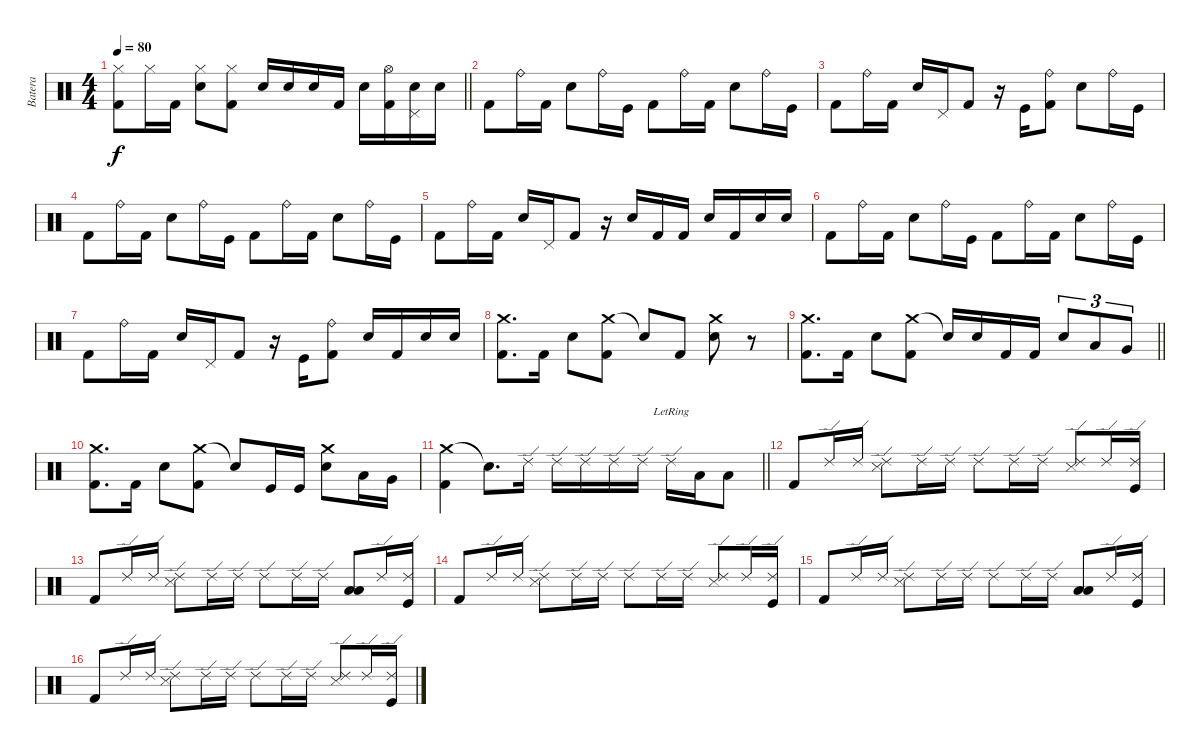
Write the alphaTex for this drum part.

\track ("Batera" "Batera") {instrument percussion}
\staff {score}
\articulation defaults
\ts (4 4)
\tempo 80
\clef neutral
\barLineRight lightlight
\ks c
("Hi-Hat (closed)" "Kick (hit) 2").8{dy f} "Hi-Hat (closed)".16 "Kick (hit) 2".16 ("Hi-Hat (closed)" "Electric Snare (hit)").8 ("Hi-Hat (closed)" "Kick (hit) 2").8 "Electric Snare (hit)".16 "Electric Snare (hit)".16 "Electric Snare (hit)".16 "Kick (hit) 2".16 "Electric Snare (hit)".16 ("Hi-Hat (open)" "Kick (hit) 2").16 ("Pedal Hi-Hat (hit)" "Electric Snare (hit)").16 "Electric Snare (hit)".16 |
"Kick (hit) 2".8 "Ride (bell)".16 "Kick (hit) 2".16 "Electric Snare (hit)".8 "Ride (bell)".16 "Kick (hit)".16 "Kick (hit) 2".8 "Ride (bell)".16 "Kick (hit) 2".16 "Electric Snare (hit)".8 "Ride (bell)".16 "Kick (hit)".16 |
"Kick (hit) 2".8 "Ride (bell)".16 "Kick (hit) 2".16 "Electric Snare (hit)".16 "Pedal Hi-Hat (hit)".16 "Kick (hit) 2".8 r.16 "Kick (hit)".16 ("Ride (bell)" "Kick (hit) 2").8 "Electric Snare (hit)".8 "Ride (bell)".16 "Kick (hit)".16 |
"Kick (hit) 2".8 "Ride (bell)".16 "Kick (hit) 2".16 "Electric Snare (hit)".8 "Ride (bell)".16 "Kick (hit)".16 "Kick (hit) 2".8 "Ride (bell)".16 "Kick (hit) 2".16 "Electric Snare (hit)".8 "Ride (bell)".16 "Kick (hit)".16 |
"Kick (hit) 2".8 "Ride (bell)".16 "Kick (hit) 2".16 "Electric Snare (hit)".16 "Pedal Hi-Hat (hit)".16 "Kick (hit) 2".8 r.16 "Electric Snare (hit)".16 "Kick (hit) 2".16 "Kick (hit) 2".16 "Electric Snare (hit)".16 "Kick (hit) 2".16 "Electric Snare (hit)".16 "Electric Snare (hit)".16 |
"Kick (hit) 2".8 "Ride (bell)".16 "Kick (hit) 2".16 "Electric Snare (hit)".8 "Ride (bell)".16 "Kick (hit)".16 "Kick (hit) 2".8 "Ride (bell)".16 "Kick (hit) 2".16 "Electric Snare (hit)".8 "Ride (bell)".16 "Kick (hit)".16 |
"Kick (hit) 2".8 "Ride (bell)".16 "Kick (hit) 2".16 "Electric Snare (hit)".16 "Pedal Hi-Hat (hit)".16 "Kick (hit) 2".8 r.16 "Kick (hit)".16 ("Ride (bell)" "Kick (hit) 2").8 "Electric Snare (hit)".16 "Kick (hit) 2".16 "Electric Snare (hit)".16 "Electric Snare (hit)".16 |
("Crash medium (hit)" "Kick (hit) 2").8{d} "Kick (hit) 2".16 "Electric Snare (hit)".8 ("Crash medium (hit)" "Kick (hit) 2").8 "Snare (hit)"{t}.8 "Kick (hit) 2".8 ("Crash medium (hit)" "Electric Snare (hit)").8 r.8 |
\barLineRight lightlight
("Crash medium (hit)" "Kick (hit) 2").8{d} "Kick (hit) 2".16 "Electric Snare (hit)".8 ("Crash medium (hit)" "Kick (hit) 2").8 "Snare (hit)"{t}.16 "Electric Snare (hit)".16 "Kick (hit) 2".16 "Kick (hit) 2".16 "Electric Snare (hit)".8{tu (3 2)} "Low Tom (hit)".8{tu (3 2)} "Very Low Tom (hit)".8{tu (3 2)} |
("Crash medium (hit)" "Kick (hit) 2").8{d} "Kick (hit) 2".16 "Electric Snare (hit)".8 ("Crash medium (hit)" "Kick (hit) 2").8 "Snare (hit)"{t}.8 "Kick (hit)".16 "Kick (hit)".16 ("Crash medium (hit)" "Electric Snare (hit)").8 "Low Tom (hit)".16 "Very Low Tom (hit)".16 |
\barLineRight lightlight
("Crash medium (hit)" "Kick (hit) 2").4 "Snare (hit)"{t}.8{d} "Ride (edge) 2".16 "Ride (edge) 2".16 "Ride (edge) 2".16 "Ride (edge) 2".16 "Ride (edge) 2".16 "Ride (edge) 2"{lr}.16 "Low Tom (hit)".16 "Low Floor Tom (hit)".8 |
"Kick (hit) 2".8 "Ride (edge) 2".16 "Ride (edge) 2".16 ("Ride (edge) 2" "Snare (side stick) 3").8 "Ride (edge) 2".16 "Ride (edge) 2".16 "Ride (edge) 2".8 "Ride (edge) 2".16 "Ride (edge) 2".16 ("Ride (edge) 2" "Snare (side stick) 3").8 "Ride (edge) 2".16 ("Ride (edge) 2" "Kick (hit)").16 |
"Kick (hit) 2".8 "Ride (edge) 2".16 "Ride (edge) 2".16 ("Ride (edge) 2" "Snare (side stick) 3").8 "Ride (edge) 2".16 "Ride (edge) 2".16 "Ride (edge) 2".8 "Ride (edge) 2".16 "Ride (edge) 2".16 ("Low Tom (hit)" "Low Floor Tom (hit)").8 "Ride (edge) 2".16 ("Ride (edge) 2" "Kick (hit)").16 |
"Kick (hit) 2".8 "Ride (edge) 2".16 "Ride (edge) 2".16 ("Ride (edge) 2" "Snare (side stick) 3").8 "Ride (edge) 2".16 "Ride (edge) 2".16 "Ride (edge) 2".8 "Ride (edge) 2".16 "Ride (edge) 2".16 ("Ride (edge) 2" "Snare (side stick) 3").8 "Ride (edge) 2".16 ("Ride (edge) 2" "Kick (hit)").16 |
"Kick (hit) 2".8 "Ride (edge) 2".16 "Ride (edge) 2".16 ("Ride (edge) 2" "Snare (side stick) 3").8 "Ride (edge) 2".16 "Ride (edge) 2".16 "Ride (edge) 2".8 "Ride (edge) 2".16 "Ride (edge) 2".16 ("Low Tom (hit)" "Low Floor Tom (hit)").8 "Ride (edge) 2".16 ("Ride (edge) 2" "Kick (hit)").16 |
"Kick (hit) 2".8 "Ride (edge) 2".16 "Ride (edge) 2".16 ("Ride (edge) 2" "Snare (side stick) 3").8 "Ride (edge) 2".16 "Ride (edge) 2".16 "Ride (edge) 2".8 "Ride (edge) 2".16 "Ride (edge) 2".16 ("Ride (edge) 2" "Snare (side stick) 3").8 "Ride (edge) 2".16 ("Ride (edge) 2" "Kick (hit)").16
